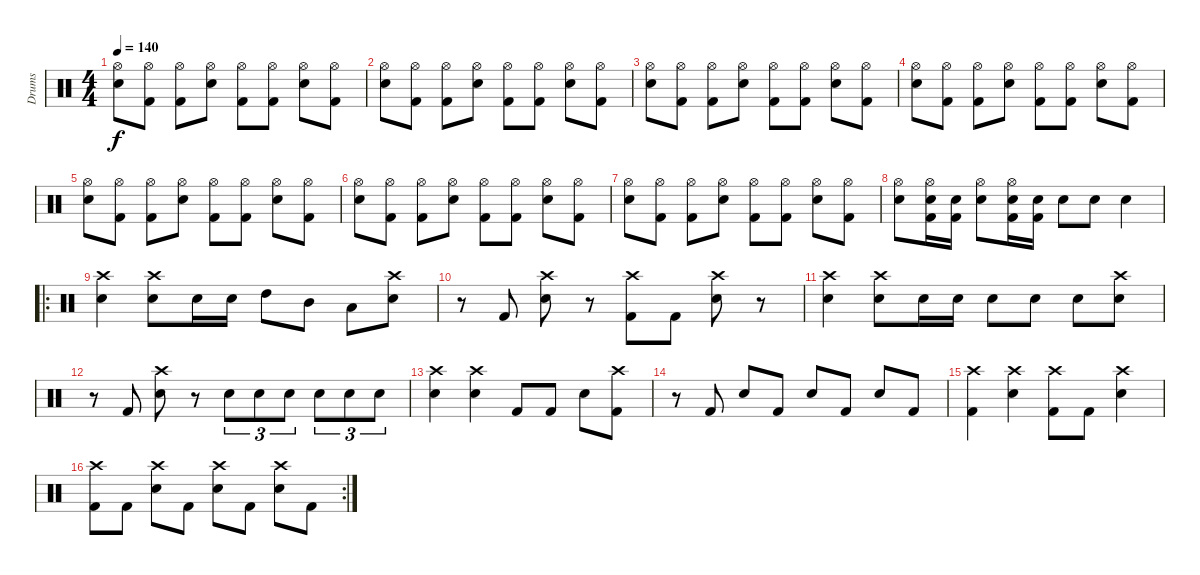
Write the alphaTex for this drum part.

\track ("Drums" "Drums") {instrument percussion}
\staff {score}
\articulation defaults
\ts (4 4)
\tempo 140
\clef neutral
\ks c
("Hi-Hat (open)" "Electric Snare (hit)").8{dy f} ("Hi-Hat (open)" "Kick (hit) 2").8 ("Hi-Hat (open)" "Kick (hit) 2").8 ("Hi-Hat (open)" "Electric Snare (hit)").8 ("Hi-Hat (open)" "Kick (hit) 2").8 ("Hi-Hat (open)" "Kick (hit) 2").8 ("Hi-Hat (open)" "Electric Snare (hit)").8 ("Hi-Hat (open)" "Kick (hit) 2").8 |
("Hi-Hat (open)" "Electric Snare (hit)").8 ("Hi-Hat (open)" "Kick (hit) 2").8 ("Hi-Hat (open)" "Kick (hit) 2").8 ("Hi-Hat (open)" "Electric Snare (hit)").8 ("Hi-Hat (open)" "Kick (hit) 2").8 ("Hi-Hat (open)" "Kick (hit) 2").8 ("Hi-Hat (open)" "Electric Snare (hit)").8 ("Hi-Hat (open)" "Kick (hit) 2").8 |
("Hi-Hat (open)" "Electric Snare (hit)").8 ("Hi-Hat (open)" "Kick (hit) 2").8 ("Hi-Hat (open)" "Kick (hit) 2").8 ("Hi-Hat (open)" "Electric Snare (hit)").8 ("Hi-Hat (open)" "Kick (hit) 2").8 ("Hi-Hat (open)" "Kick (hit) 2").8 ("Hi-Hat (open)" "Electric Snare (hit)").8 ("Hi-Hat (open)" "Kick (hit) 2").8 |
("Hi-Hat (open)" "Electric Snare (hit)").8 ("Hi-Hat (open)" "Kick (hit) 2").8 ("Hi-Hat (open)" "Kick (hit) 2").8 ("Hi-Hat (open)" "Electric Snare (hit)").8 ("Hi-Hat (open)" "Kick (hit) 2").8 ("Hi-Hat (open)" "Kick (hit) 2").8 ("Hi-Hat (open)" "Electric Snare (hit)").8 ("Hi-Hat (open)" "Kick (hit) 2").8 |
("Hi-Hat (open)" "Electric Snare (hit)").8 ("Hi-Hat (open)" "Kick (hit) 2").8 ("Hi-Hat (open)" "Kick (hit) 2").8 ("Hi-Hat (open)" "Electric Snare (hit)").8 ("Hi-Hat (open)" "Kick (hit) 2").8 ("Hi-Hat (open)" "Kick (hit) 2").8 ("Hi-Hat (open)" "Electric Snare (hit)").8 ("Hi-Hat (open)" "Kick (hit) 2").8 |
("Hi-Hat (open)" "Electric Snare (hit)").8 ("Hi-Hat (open)" "Kick (hit) 2").8 ("Hi-Hat (open)" "Kick (hit) 2").8 ("Hi-Hat (open)" "Electric Snare (hit)").8 ("Hi-Hat (open)" "Kick (hit) 2").8 ("Hi-Hat (open)" "Kick (hit) 2").8 ("Hi-Hat (open)" "Electric Snare (hit)").8 ("Hi-Hat (open)" "Kick (hit) 2").8 |
("Hi-Hat (open)" "Electric Snare (hit)").8 ("Hi-Hat (open)" "Kick (hit) 2").8 ("Hi-Hat (open)" "Kick (hit) 2").8 ("Hi-Hat (open)" "Electric Snare (hit)").8 ("Hi-Hat (open)" "Kick (hit) 2").8 ("Hi-Hat (open)" "Kick (hit) 2").8 ("Hi-Hat (open)" "Electric Snare (hit)").8 ("Hi-Hat (open)" "Kick (hit) 2").8 |
("Hi-Hat (open)" "Electric Snare (hit)").8 ("Hi-Hat (open)" "Electric Snare (hit)" "Kick (hit) 2").16 ("Electric Snare (hit)" "Kick (hit) 2").16 ("Hi-Hat (open)" "Electric Snare (hit)").8 ("Hi-Hat (open)" "Electric Snare (hit)" "Kick (hit) 2").16 ("Electric Snare (hit)" "Kick (hit) 2").16 "Electric Snare (hit)".8 "Electric Snare (hit)".8 "Electric Snare (hit)".4 |
\ro
("Crash high (hit)" "Electric Snare (hit)").4 ("Crash high (hit)" "Electric Snare (hit)").8 "Electric Snare (hit)".16 "Electric Snare (hit)".16 "High Tom (hit)".8 "Mid Tom (hit)".8 "Low Tom (hit)".8 ("Crash high (hit)" "Electric Snare (hit)").8 |
r.8 "Kick (hit) 2".8 ("Electric Snare (hit)" "Crash high (hit)").8 r.8 ("Crash high (hit)" "Kick (hit) 2").8 "Kick (hit) 2".8 ("Electric Snare (hit)" "Crash high (hit)").8 r.8 |
("Crash high (hit)" "Electric Snare (hit)").4 ("Crash high (hit)" "Electric Snare (hit)").8 "Electric Snare (hit)".16 "Electric Snare (hit)".16 "Electric Snare (hit)".8 "Electric Snare (hit)".8 "Electric Snare (hit)".8 ("Crash high (hit)" "Electric Snare (hit)").8 |
r.8 "Kick (hit) 2".8 ("Electric Snare (hit)" "Crash high (hit)").8 r.8 "Electric Snare (hit)".8{tu (3 2)} "Electric Snare (hit)".8{tu (3 2)} "Electric Snare (hit)".8{tu (3 2)} "Electric Snare (hit)".8{tu (3 2)} "Electric Snare (hit)".8{tu (3 2)} "Electric Snare (hit)".8{tu (3 2)} |
("Crash high (hit)" "Electric Snare (hit)").4 ("Crash high (hit)" "Electric Snare (hit)").4 "Kick (hit) 2".8 "Kick (hit) 2".8 "Electric Snare (hit)".8 ("Crash high (hit)" "Kick (hit) 2").8 |
r.8 "Kick (hit) 2".8 "Electric Snare (hit)".8 "Kick (hit) 2".8 "Electric Snare (hit)".8 "Kick (hit) 2".8 "Electric Snare (hit)".8 "Kick (hit) 2".8 |
("Crash high (hit)" "Kick (hit) 2").4 ("Electric Snare (hit)" "Crash high (hit)").4 ("Crash high (hit)" "Kick (hit) 2").8 "Kick (hit) 2".8 ("Electric Snare (hit)" "Crash high (hit)").4 |
\rc 2
("Crash high (hit)" "Kick (hit) 2").8 "Kick (hit) 2".8 ("Crash high (hit)" "Electric Snare (hit)").8 "Kick (hit) 2".8 ("Crash high (hit)" "Electric Snare (hit)").8 "Kick (hit) 2".8 ("Crash high (hit)" "Electric Snare (hit)").8 "Kick (hit) 2".8
